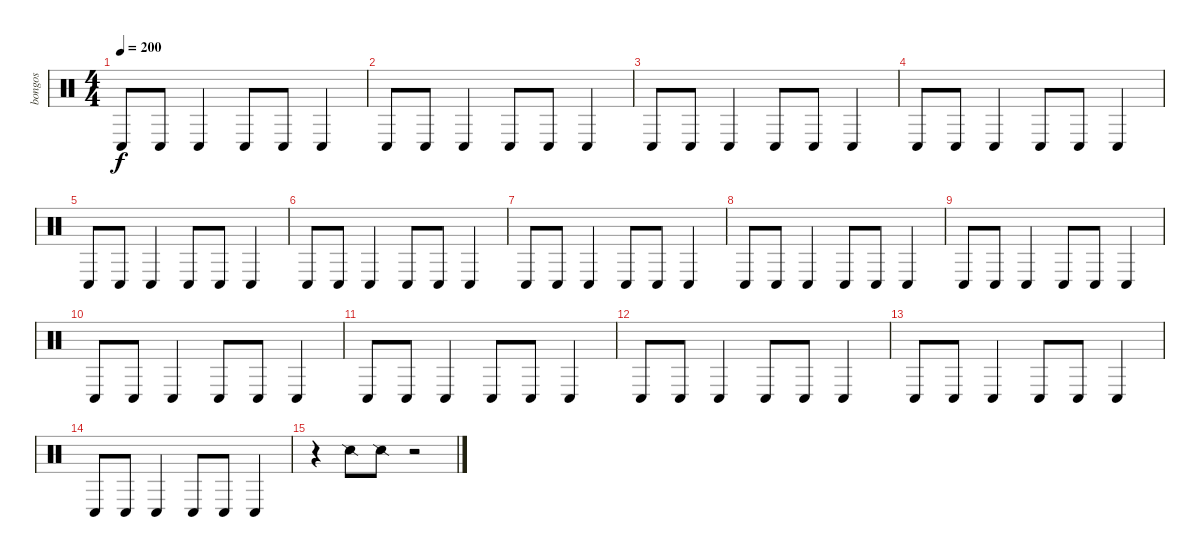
\track ("bongos" "bongos") {instrument percussion}
\staff {score}
\articulation defaults
\ts (4 4)
\tempo 200
\clef neutral
\ks c "Conga low (hit)".8{dy f} "Conga low (hit)".8 "Conga low (hit)".4 "Conga low (hit)".8 "Conga low (hit)".8 "Conga low (hit)".4
|
"Conga low (hit)".8 "Conga low (hit)".8 "Conga low (hit)".4 "Conga low (hit)".8 "Conga low (hit)".8 "Conga low (hit)".4 |
"Conga low (hit)".8 "Conga low (hit)".8 "Conga low (hit)".4 "Conga low (hit)".8 "Conga low (hit)".8 "Conga low (hit)".4 |
"Conga low (hit)".8 "Conga low (hit)".8 "Conga low (hit)".4 "Conga low (hit)".8 "Conga low (hit)".8 "Conga low (hit)".4 |
"Conga low (hit)".8 "Conga low (hit)".8 "Conga low (hit)".4 "Conga low (hit)".8 "Conga low (hit)".8 "Conga low (hit)".4 |
"Conga low (hit)".8 "Conga low (hit)".8 "Conga low (hit)".4 "Conga low (hit)".8 "Conga low (hit)".8 "Conga low (hit)".4 |
"Conga low (hit)".8 "Conga low (hit)".8 "Conga low (hit)".4 "Conga low (hit)".8 "Conga low (hit)".8 "Conga low (hit)".4 |
"Conga low (hit)".8 "Conga low (hit)".8 "Conga low (hit)".4 "Conga low (hit)".8 "Conga low (hit)".8 "Conga low (hit)".4 |
"Conga low (hit)".8 "Conga low (hit)".8 "Conga low (hit)".4 "Conga low (hit)".8 "Conga low (hit)".8 "Conga low (hit)".4 |
"Conga low (hit)".8 "Conga low (hit)".8 "Conga low (hit)".4 "Conga low (hit)".8 "Conga low (hit)".8 "Conga low (hit)".4 |
"Conga low (hit)".8 "Conga low (hit)".8 "Conga low (hit)".4 "Conga low (hit)".8 "Conga low (hit)".8 "Conga low (hit)".4 |
"Conga low (hit)".8 "Conga low (hit)".8 "Conga low (hit)".4 "Conga low (hit)".8 "Conga low (hit)".8 "Conga low (hit)".4 |
"Conga low (hit)".8 "Conga low (hit)".8 "Conga low (hit)".4 "Conga low (hit)".8 "Conga low (hit)".8 "Conga low (hit)".4 |
"Conga low (hit)".8 "Conga low (hit)".8 "Conga low (hit)".4 "Conga low (hit)".8 "Conga low (hit)".8 "Conga low (hit)".4 |
r.4 "Snare (side stick) 2".8 "Snare (side stick) 2".8 r.2
